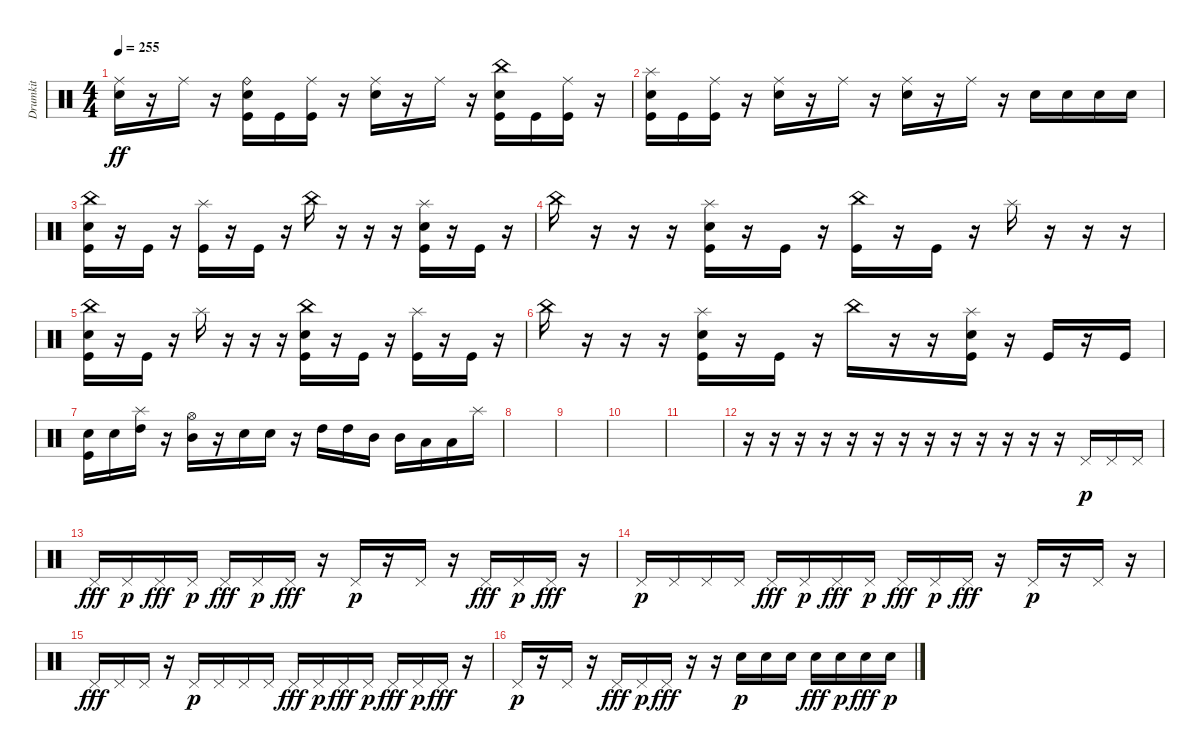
\track ("Drumkit" "Drumkit") {instrument percussion}
\staff {score}
\articulation defaults
\ts (4 4)
\tempo 255
\clef neutral
\ks c
("Snare (hit) 2" "Ride (middle)").16{dy ff} r.16 "Ride (middle)".16 r.16 ("Snare (hit) 2" "Ride (bell)" "Kick (hit)").16 "Kick (hit)".16 ("Kick (hit)" "Ride (middle)").16 r.16 ("Snare (hit) 2" "Ride (middle)").16 r.16 "Ride (middle)".16 r.16 ("Snare (hit) 2" "China (hit)" "Kick (hit)").16 "Kick (hit)".16 ("Kick (hit)" "Ride (middle)").16 r.16 |
("Snare (hit) 2" "Splash (hit)" "Kick (hit)").16 "Kick (hit)".16 ("Kick (hit)" "Ride (middle)").16 r.16 ("Snare (hit) 2" "Ride (middle)").16 r.16 "Ride (middle)".16 r.16 ("Snare (hit) 2" "Ride (middle)").16 r.16 "Ride (middle)".16 r.16 "Snare (hit) 2".16 "Snare (hit) 2".16 "Snare (hit) 2".16 "Snare (hit) 2".16 |
("China (hit)" "Snare (hit) 2" "Kick (hit)").16 r.16 "Kick (hit)".16 r.16 ("Splash (hit)" "Kick (hit)").16 r.16 "Kick (hit)".16 r.16 "China (hit)".16 r.16 r.16 r.16 ("Splash (hit)" "Snare (hit) 2" "Kick (hit)").16 r.16 "Kick (hit)".16 r.16 |
"China (hit)".16 r.16 r.16 r.16 ("Splash (hit)" "Snare (hit) 2" "Kick (hit)").16 r.16 "Kick (hit)".16 r.16 ("China (hit)" "Kick (hit)").16 r.16 "Kick (hit)".16 r.16 "Splash (hit)".16 r.16 r.16 r.16 |
("China (hit)" "Snare (hit) 2" "Kick (hit)").16 r.16 "Kick (hit)".16 r.16 "Splash (hit)".16 r.16 r.16 r.16 ("China (hit)" "Snare (hit) 2" "Kick (hit)").16 r.16 "Kick (hit)".16 r.16 ("Splash (hit)" "Kick (hit)").16 r.16 "Kick (hit)".16 r.16 |
"China (hit)".16 r.16 r.16 r.16 ("Splash (hit)" "Snare (hit) 2" "Kick (hit)").16 r.16 "Kick (hit)".16 r.16 "China (hit)".16 r.16 r.16 ("Splash (hit)" "Snare (hit) 2" "Kick (hit)").16 r.16 "Kick (hit)".16 r.16 "Kick (hit)".16 |
("Snare (hit) 2" "Kick (hit)").16 "Snare (hit) 2".16 ("High Tom (hit)" "Splash (hit)").16 r.16 ("Mid Tom (hit)" "Hi-Hat (open)").16 r.16 "Snare (hit) 2".16 "Snare (hit) 2".16 r.16 "High Tom (hit)".16 "High Tom (hit)".16 "Mid Tom (hit)".16 "Mid Tom (hit)".16 "Low Tom (hit)".16 "Low Tom (hit)".16 "Splash (hit)".16 |
|
|
|
|
r.16 r.16 r.16 r.16 r.16 r.16 r.16 r.16 r.16 r.16 r.16 r.16 r.16 "Pedal Hi-Hat (hit)".16{dy p} "Pedal Hi-Hat (hit)".16 "Pedal Hi-Hat (hit)".16 |
"Pedal Hi-Hat (hit)".16{dy fff} "Pedal Hi-Hat (hit)".16{dy p} "Pedal Hi-Hat (hit)".16{dy fff} "Pedal Hi-Hat (hit)".16{dy p} "Pedal Hi-Hat (hit)".16{dy fff} "Pedal Hi-Hat (hit)".16{dy p} "Pedal Hi-Hat (hit)".16{dy fff} r.16 "Pedal Hi-Hat (hit)".16{dy p} r.16 "Pedal Hi-Hat (hit)".16 r.16 "Pedal Hi-Hat (hit)".16{dy fff} "Pedal Hi-Hat (hit)".16{dy p} "Pedal Hi-Hat (hit)".16{dy fff} r.16 |
"Pedal Hi-Hat (hit)".16{dy p} "Pedal Hi-Hat (hit)".16 "Pedal Hi-Hat (hit)".16 "Pedal Hi-Hat (hit)".16 "Pedal Hi-Hat (hit)".16{dy fff} "Pedal Hi-Hat (hit)".16{dy p} "Pedal Hi-Hat (hit)".16{dy fff} "Pedal Hi-Hat (hit)".16{dy p} "Pedal Hi-Hat (hit)".16{dy fff} "Pedal Hi-Hat (hit)".16{dy p} "Pedal Hi-Hat (hit)".16{dy fff} r.16 "Pedal Hi-Hat (hit)".16{dy p} r.16 "Pedal Hi-Hat (hit)".16 r.16 |
"Pedal Hi-Hat (hit)".16{dy fff} "Pedal Hi-Hat (hit)".16 "Pedal Hi-Hat (hit)".16 r.16 "Pedal Hi-Hat (hit)".16{dy p} "Pedal Hi-Hat (hit)".16 "Pedal Hi-Hat (hit)".16 "Pedal Hi-Hat (hit)".16 "Pedal Hi-Hat (hit)".16{dy fff} "Pedal Hi-Hat (hit)".16{dy p} "Pedal Hi-Hat (hit)".16{dy fff} "Pedal Hi-Hat (hit)".16{dy p} "Pedal Hi-Hat (hit)".16{dy fff} "Pedal Hi-Hat (hit)".16{dy p} "Pedal Hi-Hat (hit)".16{dy fff} r.16 |
"Pedal Hi-Hat (hit)".16{dy p} r.16 "Pedal Hi-Hat (hit)".16 r.16 "Pedal Hi-Hat (hit)".16{dy fff} "Pedal Hi-Hat (hit)".16{dy p} "Pedal Hi-Hat (hit)".16{dy fff} r.16 r.16 "Snare (hit) 2".16{dy p} "Snare (hit) 2".16 "Snare (hit) 2".16 "Snare (hit) 2".16{dy fff} "Snare (hit) 2".16{dy p} "Snare (hit) 2".16{dy fff} "Snare (hit) 2".16{dy p}
